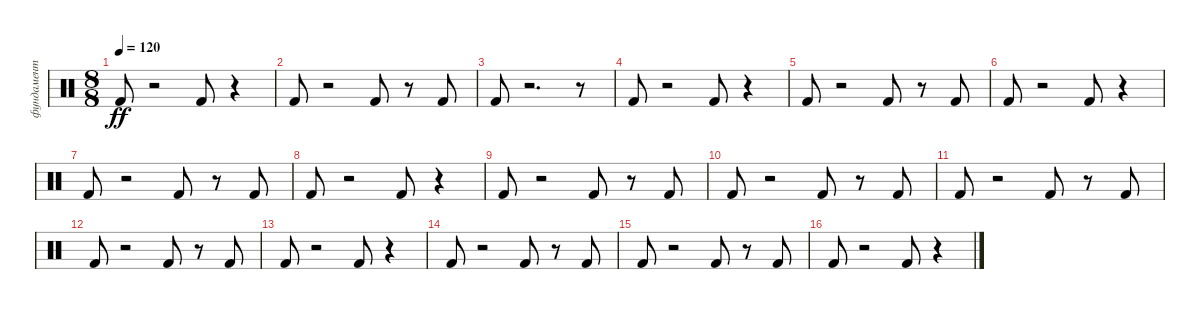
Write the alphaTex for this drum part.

\track ("фундамент" "фундамент") {instrument percussion}
\staff {score}
\articulation defaults
\ts (8 8)
\tempo 120
\clef neutral
\ks c "Kick (hit) 2".8{dy ff}
r.2 "Kick (hit) 2".8 r.4 |
"Kick (hit) 2".8 r.2 "Kick (hit) 2".8 r.8 "Kick (hit) 2".8 |
"Kick (hit) 2".8 r.2{d} r.8 |
"Kick (hit) 2".8 r.2 "Kick (hit) 2".8 r.4 |
"Kick (hit) 2".8 r.2 "Kick (hit) 2".8 r.8 "Kick (hit) 2".8 |
"Kick (hit) 2".8 r.2 "Kick (hit) 2".8 r.4 |
"Kick (hit) 2".8 r.2 "Kick (hit) 2".8 r.8 "Kick (hit) 2".8 |
"Kick (hit) 2".8 r.2 "Kick (hit) 2".8 r.4 |
"Kick (hit) 2".8 r.2 "Kick (hit) 2".8 r.8 "Kick (hit) 2".8 |
"Kick (hit) 2".8 r.2 "Kick (hit) 2".8 r.8 "Kick (hit) 2".8 |
"Kick (hit) 2".8 r.2 "Kick (hit) 2".8 r.8 "Kick (hit) 2".8 |
"Kick (hit) 2".8 r.2 "Kick (hit) 2".8 r.8 "Kick (hit) 2".8 |
"Kick (hit) 2".8 r.2 "Kick (hit) 2".8 r.4 |
"Kick (hit) 2".8 r.2 "Kick (hit) 2".8 r.8 "Kick (hit) 2".8 |
"Kick (hit) 2".8 r.2 "Kick (hit) 2".8 r.8 "Kick (hit) 2".8 |
"Kick (hit) 2".8 r.2 "Kick (hit) 2".8 r.4
